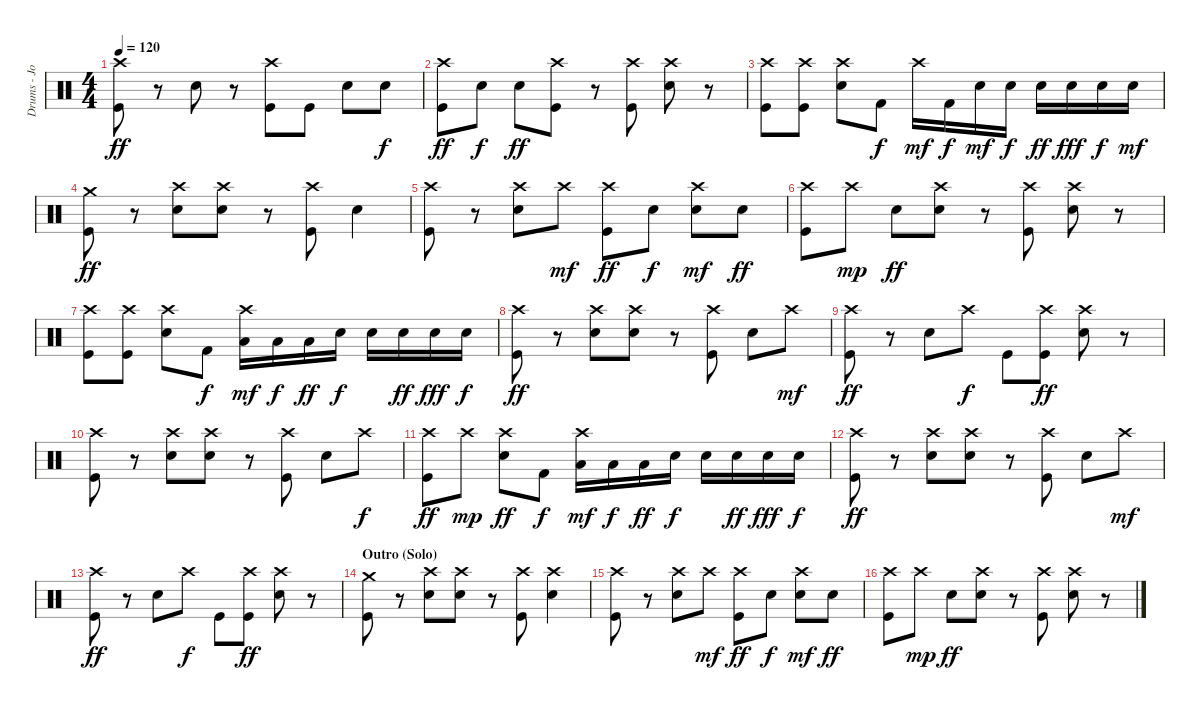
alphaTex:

\track ("Drums - Josh Klinghoffer" "Drums - Jo") {instrument percussion}
\staff {score}
\articulation defaults
\ts (4 4)
\tempo 120
\clef neutral
\ks c
("Crash high (hit)" "Kick (hit)").8{dy ff} r.8 "Snare (hit) 2".8 r.8 ("Crash high (hit)" "Kick (hit)").8 "Kick (hit)".8 "Snare (hit) 2".8 "Snare (hit) 2".8{dy f} |
("Crash high (hit)" "Kick (hit)").8{dy ff} "Snare (hit) 2".8{dy f} "Snare (hit) 2".8{dy ff} ("Crash high (hit)" "Kick (hit)").8 r.8 ("Crash high (hit)" "Kick (hit)").8 ("Crash high (hit)" "Snare (hit) 2").8 r.8 |
("Crash high (hit)" "Kick (hit)").8 ("Crash high (hit)" "Kick (hit)").8 ("Crash high (hit)" "Snare (hit) 2").8 "Kick (hit) 2".8{dy f} "Crash high (hit)".16{dy mf} "Kick (hit) 2".16{dy f} "Snare (hit) 2".16{dy mf} "Snare (hit) 2".16{dy f} "Snare (hit) 2".16{dy ff} "Snare (hit) 2".16{dy fff} "Snare (hit) 2".16{dy f} "Snare (hit) 2".16{dy mf} |
("Crash medium (hit)" "Kick (hit)").8{dy ff} r.8 ("Crash high (hit)" "Snare (hit) 2").8 ("Crash high (hit)" "Snare (hit) 2").8 r.8 ("Crash high (hit)" "Kick (hit)").8 "Snare (hit) 2".4 |
("Crash high (hit)" "Kick (hit)").8 r.8 ("Crash high (hit)" "Snare (hit) 2").8 "Crash high (hit)".8{dy mf} ("Crash high (hit)" "Kick (hit)").8{dy ff} "Snare (hit) 2".8{dy f} ("Crash high (hit)" "Snare (hit) 2").8{dy mf} "Snare (hit) 2".8{dy ff} |
("Crash high (hit)" "Kick (hit)").8 "Crash high (hit)".8{dy mp} "Snare (hit) 2".8{dy ff} ("Crash high (hit)" "Snare (hit) 2").8 r.8 ("Crash high (hit)" "Kick (hit)").8 ("Crash high (hit)" "Snare (hit) 2").8 r.8 |
("Crash high (hit)" "Kick (hit)").8 ("Crash high (hit)" "Kick (hit)").8 ("Crash high (hit)" "Snare (hit) 2").8 "Kick (hit) 2".8{dy f} ("Crash high (hit)" "Low Tom (hit)").16{dy mf} "Low Tom (hit)".16{dy f} "Low Tom (hit)".16{dy ff} "Snare (hit) 2".16{dy f} "Snare (hit) 2".16 "Snare (hit) 2".16{dy ff} "Snare (hit) 2".16{dy fff} "Snare (hit) 2".16{dy f} |
("Crash high (hit)" "Kick (hit)").8{dy ff} r.8 ("Crash high (hit)" "Snare (hit) 2").8 ("Crash high (hit)" "Snare (hit) 2").8 r.8 ("Crash high (hit)" "Kick (hit)").8 "Snare (hit) 2".8 "Crash high (hit)".8{dy mf} |
("Crash high (hit)" "Kick (hit)").8{dy ff} r.8 "Snare (hit) 2".8 "Crash high (hit)".8{dy f} "Kick (hit)".8 ("Crash high (hit)" "Kick (hit)").8{dy ff} ("Crash high (hit)" "Snare (hit) 2").8 r.8 |
("Crash high (hit)" "Kick (hit)").8 r.8 ("Crash high (hit)" "Snare (hit) 2").8 ("Crash high (hit)" "Snare (hit) 2").8 r.8 ("Crash high (hit)" "Kick (hit)").8 "Snare (hit) 2".8 "Crash high (hit)".8{dy f} |
("Crash high (hit)" "Kick (hit)").8{dy ff} "Crash high (hit)".8{dy mp} ("Crash high (hit)" "Snare (hit) 2").8{dy ff} "Kick (hit) 2".8{dy f} ("Crash high (hit)" "Low Tom (hit)").16{dy mf} "Low Tom (hit)".16{dy f} "Low Tom (hit)".16{dy ff} "Snare (hit) 2".16{dy f} "Snare (hit) 2".16 "Snare (hit) 2".16{dy ff} "Snare (hit) 2".16{dy fff} "Snare (hit) 2".16{dy f} |
("Crash high (hit)" "Kick (hit)").8{dy ff} r.8 ("Crash high (hit)" "Snare (hit) 2").8 ("Crash high (hit)" "Snare (hit) 2").8 r.8 ("Crash high (hit)" "Kick (hit)").8 "Snare (hit) 2".8 "Crash high (hit)".8{dy mf} |
("Crash high (hit)" "Kick (hit)").8{dy ff} r.8 "Snare (hit) 2".8 "Crash high (hit)".8{dy f} "Kick (hit)".8 ("Crash high (hit)" "Kick (hit)").8{dy ff} ("Crash high (hit)" "Snare (hit) 2").8 r.8 |
\section ("" "Outro (Solo)")
("Crash medium (hit)" "Kick (hit)").8 r.8 ("Crash high (hit)" "Snare (hit) 2").8 ("Crash high (hit)" "Snare (hit) 2").8 r.8 ("Crash high (hit)" "Kick (hit)").8 ("Crash high (hit)" "Snare (hit) 2").4 |
("Crash high (hit)" "Kick (hit)").8 r.8 ("Crash high (hit)" "Snare (hit) 2").8 "Crash high (hit)".8{dy mf} ("Crash high (hit)" "Kick (hit)").8{dy ff} "Snare (hit) 2".8{dy f} ("Crash high (hit)" "Snare (hit) 2").8{dy mf} "Snare (hit) 2".8{dy ff} |
("Crash high (hit)" "Kick (hit)").8 "Crash high (hit)".8{dy mp} "Snare (hit) 2".8{dy ff} ("Crash high (hit)" "Snare (hit) 2").8 r.8 ("Crash high (hit)" "Kick (hit)").8 ("Crash high (hit)" "Snare (hit) 2").8 r.8
